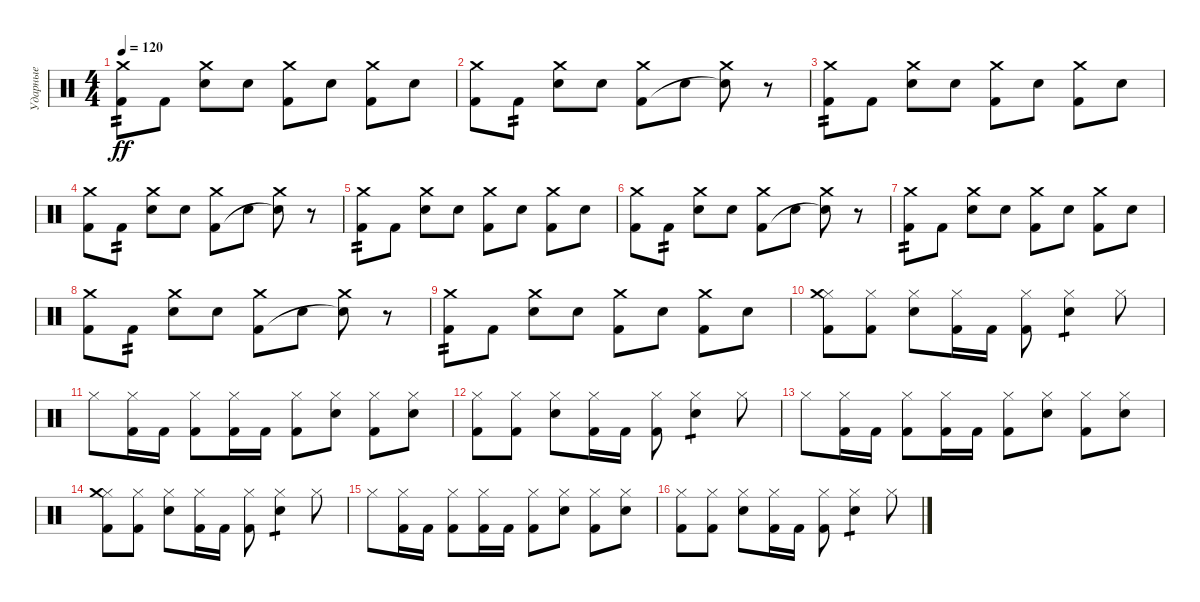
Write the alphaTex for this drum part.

\track ("Ударные" "Ударные") {instrument percussion}
\staff {score}
\articulation defaults
\ts (4 4)
\tempo 120
\clef neutral
\ks c
("Crash medium (hit)" "Kick (hit) 2").8{tp 2 dy ff} "Kick (hit) 2".8 ("Crash medium (hit)" "Electric Snare (hit)").8 "Electric Snare (hit)".8 ("Crash medium (hit)" "Kick (hit) 2").8 "Electric Snare (hit)".8 ("Crash medium (hit)" "Kick (hit) 2").8 "Electric Snare (hit)".8 |
("Crash medium (hit)" "Kick (hit) 2").8 "Kick (hit) 2".8{tp 2} ("Crash medium (hit)" "Electric Snare (hit)").8 "Electric Snare (hit)".8 ("Crash medium (hit)" "Kick (hit) 2").8 "Electric Snare (hit)".8 ("Crash medium (hit)" "Electric Snare (hit)"{t}).8 r.8 |
("Crash medium (hit)" "Kick (hit) 2").8{tp 2} "Kick (hit) 2".8 ("Crash medium (hit)" "Electric Snare (hit)").8 "Electric Snare (hit)".8 ("Crash medium (hit)" "Kick (hit) 2").8 "Electric Snare (hit)".8 ("Crash medium (hit)" "Kick (hit) 2").8 "Electric Snare (hit)".8 |
("Crash medium (hit)" "Kick (hit) 2").8 "Kick (hit) 2".8{tp 2} ("Crash medium (hit)" "Electric Snare (hit)").8 "Electric Snare (hit)".8 ("Crash medium (hit)" "Kick (hit) 2").8 "Electric Snare (hit)".8 ("Crash medium (hit)" "Electric Snare (hit)"{t}).8 r.8 |
("Crash medium (hit)" "Kick (hit) 2").8{tp 2} "Kick (hit) 2".8 ("Crash medium (hit)" "Electric Snare (hit)").8 "Electric Snare (hit)".8 ("Crash medium (hit)" "Kick (hit) 2").8 "Electric Snare (hit)".8 ("Crash medium (hit)" "Kick (hit) 2").8 "Electric Snare (hit)".8 |
("Crash medium (hit)" "Kick (hit) 2").8 "Kick (hit) 2".8{tp 2} ("Crash medium (hit)" "Electric Snare (hit)").8 "Electric Snare (hit)".8 ("Crash medium (hit)" "Kick (hit) 2").8 "Electric Snare (hit)".8 ("Crash medium (hit)" "Electric Snare (hit)"{t}).8 r.8 |
("Crash medium (hit)" "Kick (hit) 2").8{tp 2} "Kick (hit) 2".8 ("Crash medium (hit)" "Electric Snare (hit)").8 "Electric Snare (hit)".8 ("Crash medium (hit)" "Kick (hit) 2").8 "Electric Snare (hit)".8 ("Crash medium (hit)" "Kick (hit) 2").8 "Electric Snare (hit)".8 |
("Crash medium (hit)" "Kick (hit) 2").8 "Kick (hit) 2".8{tp 2} ("Crash medium (hit)" "Electric Snare (hit)").8 "Electric Snare (hit)".8 ("Crash medium (hit)" "Kick (hit) 2").8 "Electric Snare (hit)".8 ("Crash medium (hit)" "Electric Snare (hit)"{t}).8 r.8 |
("Crash medium (hit)" "Kick (hit) 2").8{tp 2} "Kick (hit) 2".8 ("Crash medium (hit)" "Electric Snare (hit)").8 "Electric Snare (hit)".8 ("Crash medium (hit)" "Kick (hit) 2").8 "Electric Snare (hit)".8 ("Crash medium (hit)" "Kick (hit) 2").8 "Electric Snare (hit)".8 |
("Hi-Hat (closed)" "Crash medium (hit)" "Kick (hit) 2").8 ("Hi-Hat (closed)" "Kick (hit) 2").8 ("Hi-Hat (closed)" "Electric Snare (hit)").8 ("Hi-Hat (closed)" "Kick (hit) 2").16 "Kick (hit) 2".16 ("Hi-Hat (closed)" "Kick (hit) 2").8 ("Hi-Hat (closed)" "Electric Snare (hit)").4{tp 1} "Hi-Hat (closed)".8 |
"Hi-Hat (closed)".8 ("Hi-Hat (closed)" "Kick (hit) 2").16 "Kick (hit) 2".16 ("Hi-Hat (closed)" "Kick (hit) 2").8 ("Hi-Hat (closed)" "Kick (hit) 2").16 "Kick (hit) 2".16 ("Hi-Hat (closed)" "Kick (hit) 2").8 ("Hi-Hat (closed)" "Electric Snare (hit)").8 ("Hi-Hat (closed)" "Kick (hit) 2").8 ("Hi-Hat (closed)" "Electric Snare (hit)").8 |
("Hi-Hat (closed)" "Kick (hit) 2").8 ("Hi-Hat (closed)" "Kick (hit) 2").8 ("Hi-Hat (closed)" "Electric Snare (hit)").8 ("Hi-Hat (closed)" "Kick (hit) 2").16 "Kick (hit) 2".16 ("Hi-Hat (closed)" "Kick (hit) 2").8 ("Hi-Hat (closed)" "Electric Snare (hit)").4{tp 1} "Hi-Hat (closed)".8 |
"Hi-Hat (closed)".8 ("Hi-Hat (closed)" "Kick (hit) 2").16 "Kick (hit) 2".16 ("Hi-Hat (closed)" "Kick (hit) 2").8 ("Hi-Hat (closed)" "Kick (hit) 2").16 "Kick (hit) 2".16 ("Hi-Hat (closed)" "Kick (hit) 2").8 ("Hi-Hat (closed)" "Electric Snare (hit)").8 ("Hi-Hat (closed)" "Kick (hit) 2").8 ("Hi-Hat (closed)" "Electric Snare (hit)").8 |
("Hi-Hat (closed)" "Crash medium (hit)" "Kick (hit) 2").8 ("Hi-Hat (closed)" "Kick (hit) 2").8 ("Hi-Hat (closed)" "Electric Snare (hit)").8 ("Hi-Hat (closed)" "Kick (hit) 2").16 "Kick (hit) 2".16 ("Hi-Hat (closed)" "Kick (hit) 2").8 ("Hi-Hat (closed)" "Electric Snare (hit)").4{tp 1} "Hi-Hat (closed)".8 |
"Hi-Hat (closed)".8 ("Hi-Hat (closed)" "Kick (hit) 2").16 "Kick (hit) 2".16 ("Hi-Hat (closed)" "Kick (hit) 2").8 ("Hi-Hat (closed)" "Kick (hit) 2").16 "Kick (hit) 2".16 ("Hi-Hat (closed)" "Kick (hit) 2").8 ("Hi-Hat (closed)" "Electric Snare (hit)").8 ("Hi-Hat (closed)" "Kick (hit) 2").8 ("Hi-Hat (closed)" "Electric Snare (hit)").8 |
("Hi-Hat (closed)" "Kick (hit) 2").8 ("Hi-Hat (closed)" "Kick (hit) 2").8 ("Hi-Hat (closed)" "Electric Snare (hit)").8 ("Hi-Hat (closed)" "Kick (hit) 2").16 "Kick (hit) 2".16 ("Hi-Hat (closed)" "Kick (hit) 2").8 ("Hi-Hat (closed)" "Electric Snare (hit)").4{tp 1} "Hi-Hat (closed)".8
